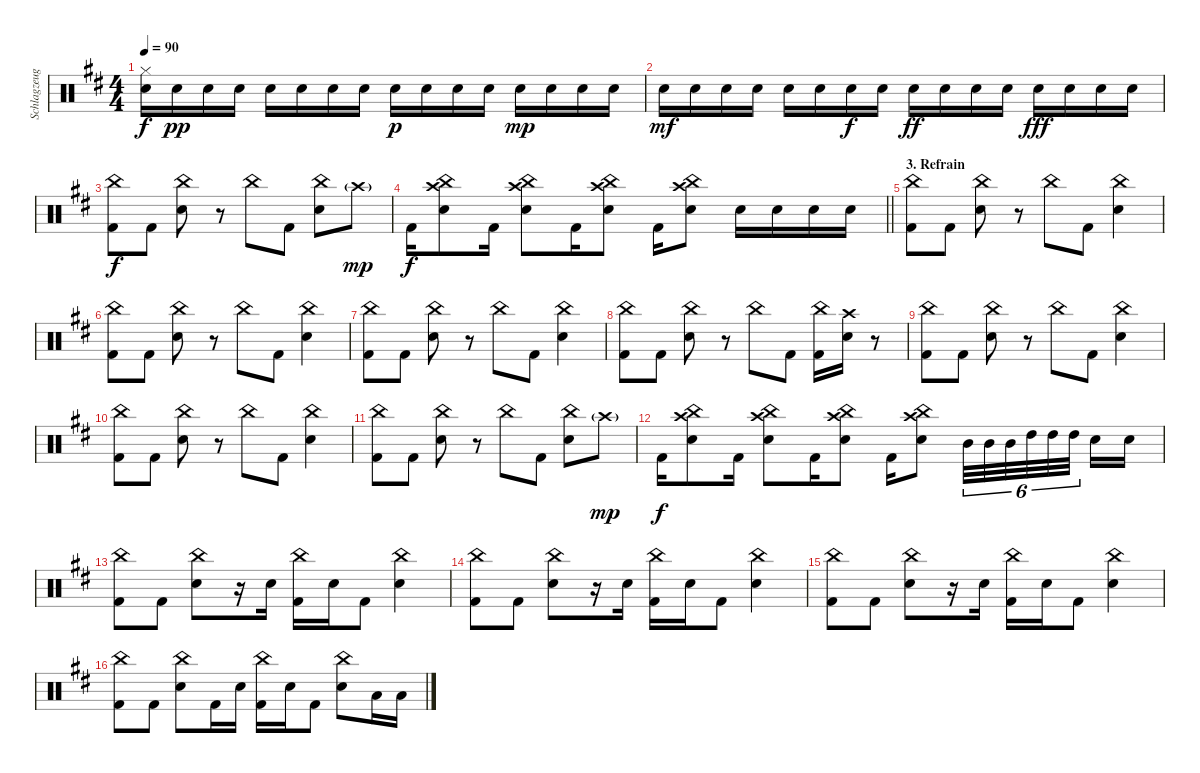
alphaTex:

\track ("Schlagzeug" "Schlagzeug") {instrument percussion}
\staff {score}
\articulation defaults
\ts (4 4)
\tempo 90
\clef neutral
\ks d
("Hi-Hat (closed)" "Electric Snare (hit)").16{dy f} "Electric Snare (hit)".16{dy pp} "Electric Snare (hit)".16 "Electric Snare (hit)".16 "Electric Snare (hit)".16 "Electric Snare (hit)".16 "Electric Snare (hit)".16 "Electric Snare (hit)".16 "Electric Snare (hit)".16{dy p} "Electric Snare (hit)".16 "Electric Snare (hit)".16 "Electric Snare (hit)".16 "Electric Snare (hit)".16{dy mp} "Electric Snare (hit)".16 "Electric Snare (hit)".16 "Electric Snare (hit)".16 |
"Electric Snare (hit)".16{dy mf} "Electric Snare (hit)".16 "Electric Snare (hit)".16 "Electric Snare (hit)".16 "Electric Snare (hit)".16 "Electric Snare (hit)".16 "Electric Snare (hit)".16{dy f} "Electric Snare (hit)".16 "Electric Snare (hit)".16{dy ff} "Electric Snare (hit)".16 "Electric Snare (hit)".16 "Electric Snare (hit)".16 "Electric Snare (hit)".16{dy fff} "Electric Snare (hit)".16 "Electric Snare (hit)".16 "Electric Snare (hit)".16 |
("China (hit)" "Kick (hit) 2").8{dy f} "Kick (hit) 2".8 ("China (hit)" "Electric Snare (hit)").8 r.8 "China (hit)".8 "Kick (hit) 2".8 ("China (hit)" "Electric Snare (hit)").8 "Crash high (hit)"{g}.8{dy mp} |
\barLineRight lightlight "Kick (hit) 2".16{dy f}
("China (hit)" "Crash high (hit)" "Electric Snare (hit)").8 "Kick (hit) 2".16 ("China (hit)" "Crash high (hit)" "Electric Snare (hit)").8 "Kick (hit) 2".16 ("China (hit)" "Crash high (hit)" "Electric Snare (hit)").8 "Kick (hit) 2".16 ("China (hit)" "Crash high (hit)" "Electric Snare (hit)").8 "Electric Snare (hit)".16 "Electric Snare (hit)".16 "Electric Snare (hit)".16 "Electric Snare (hit)".16 |
\section ("" "3. Refrain")
("China (hit)" "Kick (hit) 2").8 "Kick (hit) 2".8 ("China (hit)" "Electric Snare (hit)").8 r.8 "China (hit)".8 "Kick (hit) 2".8 ("China (hit)" "Electric Snare (hit)").4 |
("China (hit)" "Kick (hit) 2").8 "Kick (hit) 2".8 ("China (hit)" "Electric Snare (hit)").8 r.8 "China (hit)".8 "Kick (hit) 2".8 ("China (hit)" "Electric Snare (hit)").4 |
("China (hit)" "Kick (hit) 2").8 "Kick (hit) 2".8 ("China (hit)" "Electric Snare (hit)").8 r.8 "China (hit)".8 "Kick (hit) 2".8 ("China (hit)" "Electric Snare (hit)").4 |
("China (hit)" "Kick (hit) 2").8 "Kick (hit) 2".8 ("China (hit)" "Electric Snare (hit)").8 r.8 "China (hit)".8 "Kick (hit) 2".8 ("China (hit)" "Kick (hit) 2").16 ("Crash high (hit)" "Electric Snare (hit)").16 r.8 |
("China (hit)" "Kick (hit) 2").8 "Kick (hit) 2".8 ("China (hit)" "Electric Snare (hit)").8 r.8 "China (hit)".8 "Kick (hit) 2".8 ("China (hit)" "Electric Snare (hit)").4 |
("China (hit)" "Kick (hit) 2").8 "Kick (hit) 2".8 ("China (hit)" "Electric Snare (hit)").8 r.8 "China (hit)".8 "Kick (hit) 2".8 ("China (hit)" "Electric Snare (hit)").4 |
("China (hit)" "Kick (hit) 2").8 "Kick (hit) 2".8 ("China (hit)" "Electric Snare (hit)").8 r.8 "China (hit)".8 "Kick (hit) 2".8 ("China (hit)" "Electric Snare (hit)").8 "Crash high (hit)"{g}.8{dy mp} |
"Kick (hit) 2".16{dy f} ("China (hit)" "Crash high (hit)" "Electric Snare (hit)").8 "Kick (hit) 2".16 ("China (hit)" "Crash high (hit)" "Electric Snare (hit)").8 "Kick (hit) 2".16 ("China (hit)" "Crash high (hit)" "Electric Snare (hit)").8 "Kick (hit) 2".16 ("China (hit)" "Crash high (hit)" "Electric Snare (hit)").8 "Mid Tom (hit)".32{tu (6 4)} "Mid Tom (hit)".32{tu (6 4)} "Mid Tom (hit)".32{tu (6 4)} "High Tom (hit)".32{tu (6 4)} "High Tom (hit)".32{tu (6 4)} "High Tom (hit)".32{tu (6 4)} "Electric Snare (hit)".16 "Electric Snare (hit)".16 |
("China (hit)" "Kick (hit) 2").8 "Kick (hit) 2".8 ("China (hit)" "Electric Snare (hit)").8 r.16 "Electric Snare (hit)".16 ("China (hit)" "Kick (hit) 2").16 "Electric Snare (hit)".16 "Kick (hit) 2".8 ("China (hit)" "Electric Snare (hit)").4 |
("China (hit)" "Kick (hit) 2").8 "Kick (hit) 2".8 ("China (hit)" "Electric Snare (hit)").8 r.16 "Electric Snare (hit)".16 ("China (hit)" "Kick (hit) 2").16 "Electric Snare (hit)".16 "Kick (hit) 2".8 ("China (hit)" "Electric Snare (hit)").4 |
("China (hit)" "Kick (hit) 2").8 "Kick (hit) 2".8 ("China (hit)" "Electric Snare (hit)").8 r.16 "Electric Snare (hit)".16 ("China (hit)" "Kick (hit) 2").16 "Electric Snare (hit)".16 "Kick (hit) 2".8 ("China (hit)" "Electric Snare (hit)").4 |
("China (hit)" "Kick (hit) 2").8 "Kick (hit) 2".8 ("China (hit)" "Electric Snare (hit)").8 "Kick (hit) 2".16 "Electric Snare (hit)".16 ("China (hit)" "Kick (hit) 2").16 "Electric Snare (hit)".16 "Kick (hit) 2".8 ("China (hit)" "Electric Snare (hit)").8 "Low Tom (hit)".16 "Low Tom (hit)".16
